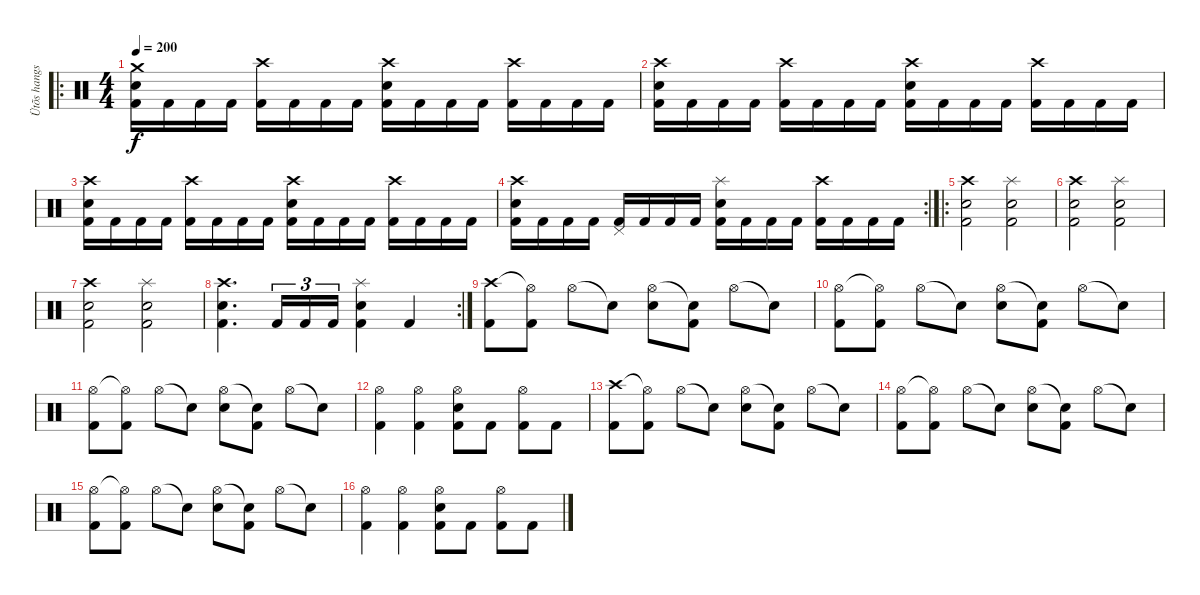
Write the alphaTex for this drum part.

\track ("Ütõs hangszer" "Ütõs hangs") {instrument percussion}
\staff {score}
\articulation defaults
\ro
\ts (4 4)
\tempo 200
\clef neutral
\ks c
("Crash medium (hit)" "Snare (hit) 2" "Kick (hit) 2").16{dy f} "Kick (hit) 2".16 "Kick (hit) 2".16 "Kick (hit) 2".16 ("Crash high (hit)" "Kick (hit) 2").16 "Kick (hit) 2".16 "Kick (hit) 2".16 "Kick (hit) 2".16 ("Crash high (hit)" "Snare (hit) 2" "Kick (hit) 2").16 "Kick (hit) 2".16 "Kick (hit) 2".16 "Kick (hit) 2".16 ("Crash high (hit)" "Kick (hit) 2").16 "Kick (hit) 2".16 "Kick (hit) 2".16 "Kick (hit) 2".16 |
("Crash high (hit)" "Snare (hit) 2" "Kick (hit) 2").16 "Kick (hit) 2".16 "Kick (hit) 2".16 "Kick (hit) 2".16 ("Crash high (hit)" "Kick (hit) 2").16 "Kick (hit) 2".16 "Kick (hit) 2".16 "Kick (hit) 2".16 ("Crash high (hit)" "Snare (hit) 2" "Kick (hit) 2").16 "Kick (hit) 2".16 "Kick (hit) 2".16 "Kick (hit) 2".16 ("Crash high (hit)" "Kick (hit) 2").16 "Kick (hit) 2".16 "Kick (hit) 2".16 "Kick (hit) 2".16 |
("Crash high (hit)" "Snare (hit) 2" "Kick (hit) 2").16 "Kick (hit) 2".16 "Kick (hit) 2".16 "Kick (hit) 2".16 ("Crash high (hit)" "Kick (hit) 2").16 "Kick (hit) 2".16 "Kick (hit) 2".16 "Kick (hit) 2".16 ("Crash high (hit)" "Snare (hit) 2" "Kick (hit) 2").16 "Kick (hit) 2".16 "Kick (hit) 2".16 "Kick (hit) 2".16 ("Crash high (hit)" "Kick (hit) 2").16 "Kick (hit) 2".16 "Kick (hit) 2".16 "Kick (hit) 2".16 |
\rc 2
("Crash high (hit)" "Snare (hit) 2" "Kick (hit) 2").16 "Kick (hit) 2".16 "Kick (hit) 2".16 "Kick (hit) 2".16 ("Pedal Hi-Hat (hit)" "Kick (hit) 2").16 "Kick (hit) 2".16 "Kick (hit) 2".16 "Kick (hit) 2".16 ("Splash (hit)" "Snare (hit) 2" "Kick (hit) 2").16 "Kick (hit) 2".16 "Kick (hit) 2".16 "Kick (hit) 2".16 ("Crash high (hit)" "Kick (hit) 2").16 "Kick (hit) 2".16 "Kick (hit) 2".16 "Kick (hit) 2".16 |
\ro
("Crash high (hit)" "Snare (hit) 2" "Kick (hit) 2").2 ("Splash (hit)" "Snare (hit) 2" "Kick (hit) 2").2 |
("Crash high (hit)" "Snare (hit) 2" "Kick (hit) 2").2 ("Splash (hit)" "Snare (hit) 2" "Kick (hit) 2").2 |
("Crash high (hit)" "Snare (hit) 2" "Kick (hit) 2").2 ("Splash (hit)" "Snare (hit) 2" "Kick (hit) 2").2 |
\rc 2
("Crash high (hit)" "Snare (hit) 2" "Kick (hit) 2").4{d} "Kick (hit) 2".16{tu (3 2)} "Kick (hit) 2".16{tu (3 2)} "Kick (hit) 2".16{tu (3 2)} ("Splash (hit)" "Snare (hit) 2" "Kick (hit) 2").4 "Kick (hit) 2".4 |
("Crash high (hit)" "Kick (hit) 2").8 ("Hi-Hat (open)"{t} "Kick (hit) 2").8 "Hi-Hat (open)".8 "Snare (hit)"{t}.8 ("Hi-Hat (open)" "Snare (hit) 2").8 ("Snare (hit)"{t} "Kick (hit) 2").8 "Hi-Hat (open)".8 "Snare (hit)"{t}.8 |
("Hi-Hat (open)" "Kick (hit) 2").8 ("Hi-Hat (open)"{t} "Kick (hit) 2").8 "Hi-Hat (open)".8 "Snare (hit)"{t}.8 ("Hi-Hat (open)" "Snare (hit) 2").8 ("Snare (hit)"{t} "Kick (hit) 2").8 "Hi-Hat (open)".8 "Snare (hit)"{t}.8 |
("Hi-Hat (open)" "Kick (hit) 2").8 ("Hi-Hat (open)"{t} "Kick (hit) 2").8 "Hi-Hat (open)".8 "Snare (hit)"{t}.8 ("Hi-Hat (open)" "Snare (hit) 2").8 ("Snare (hit)"{t} "Kick (hit) 2").8 "Hi-Hat (open)".8 "Snare (hit)"{t}.8 |
("Hi-Hat (open)" "Kick (hit) 2").4 ("Hi-Hat (open)" "Kick (hit) 2").4 ("Hi-Hat (open)" "Snare (hit) 2" "Kick (hit) 2").8 "Kick (hit) 2".8 ("Hi-Hat (open)" "Kick (hit) 2").8 "Kick (hit) 2".8 |
("Crash high (hit)" "Kick (hit) 2").8 ("Hi-Hat (open)"{t} "Kick (hit) 2").8 "Hi-Hat (open)".8 "Snare (hit)"{t}.8 ("Hi-Hat (open)" "Snare (hit) 2").8 ("Snare (hit)"{t} "Kick (hit) 2").8 "Hi-Hat (open)".8 "Snare (hit)"{t}.8 |
("Hi-Hat (open)" "Kick (hit) 2").8 ("Hi-Hat (open)"{t} "Kick (hit) 2").8 "Hi-Hat (open)".8 "Snare (hit)"{t}.8 ("Hi-Hat (open)" "Snare (hit) 2").8 ("Snare (hit)"{t} "Kick (hit) 2").8 "Hi-Hat (open)".8 "Snare (hit)"{t}.8 |
("Hi-Hat (open)" "Kick (hit) 2").8 ("Hi-Hat (open)"{t} "Kick (hit) 2").8 "Hi-Hat (open)".8 "Snare (hit)"{t}.8 ("Hi-Hat (open)" "Snare (hit) 2").8 ("Snare (hit)"{t} "Kick (hit) 2").8 "Hi-Hat (open)".8 "Snare (hit)"{t}.8 |
("Hi-Hat (open)" "Kick (hit) 2").4 ("Hi-Hat (open)" "Kick (hit) 2").4 ("Hi-Hat (open)" "Snare (hit) 2" "Kick (hit) 2").8 "Kick (hit) 2".8 ("Hi-Hat (open)" "Kick (hit) 2").8 "Kick (hit) 2".8
